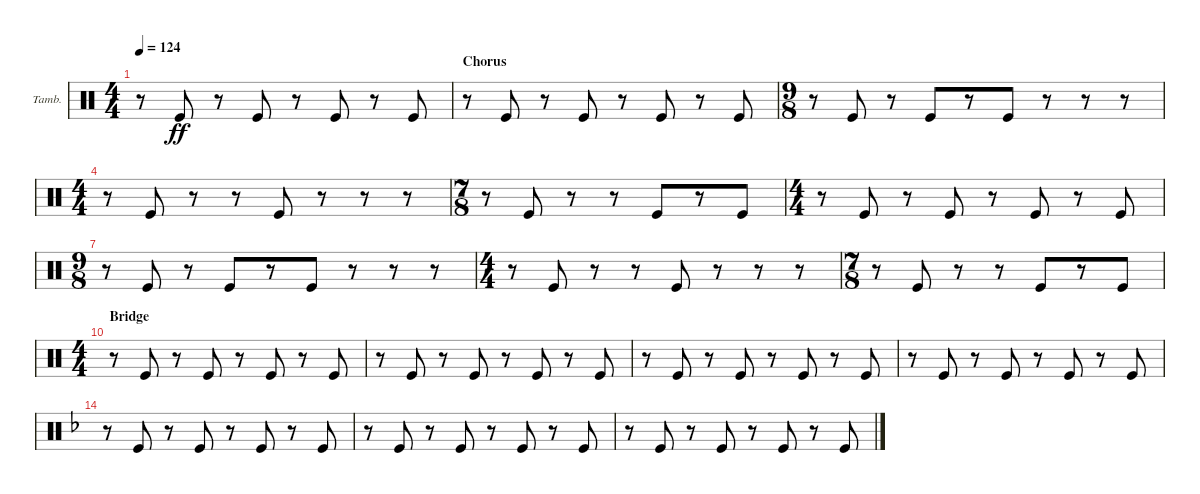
\bracketExtendMode nobrackets
\firstSystemTrackNameOrientation horizontal
\otherSystemsTrackNameOrientation horizontal
\defaultBarNumberDisplay FirstOfSystem
\track ("Tambourine" "Tamb.") {instrument percussion}
\staff {score}
\articulation defaults
\ts (4 4)
\tempo 124
\clef neutral
\scale
0.333333
\ks c
r.8{dy ff} "Kick (hit)".8 r.8 "Kick (hit)".8 r.8 "Kick (hit)".8 r.8 "Kick (hit)".8 |
\section ("" "Chorus")
\scale
0.260274 r.8 "Kick (hit)".8 r.8 "Kick (hit)".8 r.8 "Kick (hit)".8 r.8 "Kick (hit)".8 |
\ts (9 8)
\scale
0.369863 r.8 "Kick (hit)".8 r.8 "Kick (hit)".8 r.8 "Kick (hit)".8 r.8 r.8 r.8 |
\ts (4 4)
\scale
0.369863 r.8 "Kick (hit)".8 r.8 r.8 "Kick (hit)".8 r.8 r.8 r.8 |
\ts (7 8)
\scale
0.333333 r.8 "Kick (hit)".8 r.8 r.8 "Kick (hit)".8 r.8 "Kick (hit)".8 |
\ts (4 4)
\scale
0.333333 r.8 "Kick (hit)".8 r.8 "Kick (hit)".8 r.8 "Kick (hit)".8 r.8 "Kick (hit)".8 |
\ts (9 8)
\scale
0.333333 r.8 "Kick (hit)".8 r.8 "Kick (hit)".8 r.8 "Kick (hit)".8 r.8 r.8 r.8 |
\ts (4 4)
\scale
0.333333 r.8 "Kick (hit)".8 r.8 r.8 "Kick (hit)".8 r.8 r.8 r.8 |
\ts (7 8)
\scale
0.333333 r.8 "Kick (hit)".8 r.8 r.8 "Kick (hit)".8 r.8 "Kick (hit)".8 |
\ts (4 4)
\section ("" "Bridge")
\scale
0.333333 r.8 "Kick (hit)".8 r.8 "Kick (hit)".8 r.8 "Kick (hit)".8 r.8 "Kick (hit)".8 |
\scale
0.333333 r.8 "Kick (hit)".8 r.8 "Kick (hit)".8 r.8 "Kick (hit)".8 r.8 "Kick (hit)".8 |
\scale
0.333333 r.8 "Kick (hit)".8 r.8 "Kick (hit)".8 r.8 "Kick (hit)".8 r.8 "Kick (hit)".8 |
\scale
0.333333 r.8 "Kick (hit)".8 r.8 "Kick (hit)".8 r.8 "Kick (hit)".8 r.8 "Kick (hit)".8 |
\scale
0.333333
\ks f
r.8 "Kick (hit)".8 r.8 "Kick (hit)".8 r.8 "Kick (hit)".8 r.8 "Kick (hit)".8 |
\scale
0.333333 r.8 "Kick (hit)".8 r.8 "Kick (hit)".8 r.8 "Kick (hit)".8 r.8 "Kick (hit)".8 |
\scale
0.333333 r.8 "Kick (hit)".8 r.8 "Kick (hit)".8 r.8 "Kick (hit)".8 r.8 "Kick (hit)".8
